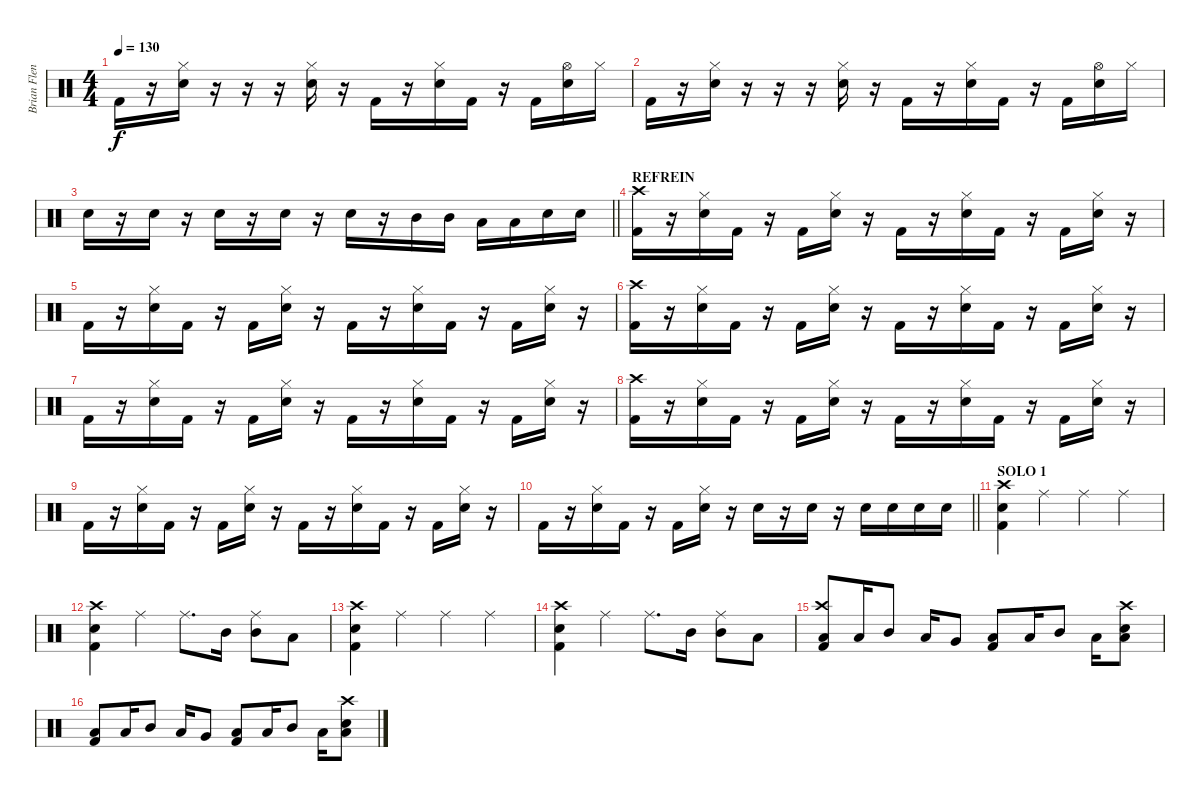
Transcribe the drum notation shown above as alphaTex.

\track ("Brian Flenniken" "Brian Flen") {instrument percussion}
\staff {score}
\articulation defaults
\ts (4 4)
\tempo 130
\clef neutral
\ks c "Kick (hit) 2".16{dy f}
r.16 ("Hi-Hat (closed)" "Snare (hit) 2").16 r.16 r.16 r.16 ("Hi-Hat (closed)" "Snare (hit) 2").16 r.16 "Kick (hit) 2".16 r.16 ("Hi-Hat (closed)" "Snare (hit) 2").16 "Kick (hit) 2".16 r.16 "Kick (hit) 2".16 ("Hi-Hat (open)" "Snare (hit) 2").16 "Hi-Hat (closed)".16 |
"Kick (hit) 2".16 r.16 ("Hi-Hat (closed)" "Snare (hit) 2").16 r.16 r.16 r.16 ("Hi-Hat (closed)" "Snare (hit) 2").16 r.16 "Kick (hit) 2".16 r.16 ("Hi-Hat (closed)" "Snare (hit) 2").16 "Kick (hit) 2".16 r.16 "Kick (hit) 2".16 ("Hi-Hat (open)" "Snare (hit) 2").16 "Hi-Hat (closed)".16 |
\barLineRight lightlight "Snare (hit) 2".16
r.16 "Snare (hit) 2".16 r.16 "Snare (hit) 2".16 r.16 "Snare (hit) 2".16 r.16 "Snare (hit) 2".16 r.16 "Mid Tom (hit)".16 "Mid Tom (hit)".16 "Low Tom (hit)".16 "Low Tom (hit)".16 "Snare (hit) 2".16 "Snare (hit) 2".16 |
\section ("" "REFREIN")
("Crash high (hit)" "Kick (hit) 2").16 r.16 ("Hi-Hat (closed)" "Snare (hit) 2").16 "Kick (hit) 2".16 r.16 "Kick (hit) 2".16 ("Hi-Hat (closed)" "Snare (hit) 2").16 r.16 "Kick (hit) 2".16 r.16 ("Hi-Hat (closed)" "Snare (hit) 2").16 "Kick (hit) 2".16 r.16 "Kick (hit) 2".16 ("Hi-Hat (closed)" "Snare (hit) 2").16 r.16 |
"Kick (hit) 2".16 r.16 ("Hi-Hat (closed)" "Snare (hit) 2").16 "Kick (hit) 2".16 r.16 "Kick (hit) 2".16 ("Hi-Hat (closed)" "Snare (hit) 2").16 r.16 "Kick (hit) 2".16 r.16 ("Hi-Hat (closed)" "Snare (hit) 2").16 "Kick (hit) 2".16 r.16 "Kick (hit) 2".16 ("Hi-Hat (closed)" "Snare (hit) 2").16 r.16 |
("Crash high (hit)" "Kick (hit) 2").16 r.16 ("Hi-Hat (closed)" "Snare (hit) 2").16 "Kick (hit) 2".16 r.16 "Kick (hit) 2".16 ("Hi-Hat (closed)" "Snare (hit) 2").16 r.16 "Kick (hit) 2".16 r.16 ("Hi-Hat (closed)" "Snare (hit) 2").16 "Kick (hit) 2".16 r.16 "Kick (hit) 2".16 ("Hi-Hat (closed)" "Snare (hit) 2").16 r.16 |
"Kick (hit) 2".16 r.16 ("Hi-Hat (closed)" "Snare (hit) 2").16 "Kick (hit) 2".16 r.16 "Kick (hit) 2".16 ("Hi-Hat (closed)" "Snare (hit) 2").16 r.16 "Kick (hit) 2".16 r.16 ("Hi-Hat (closed)" "Snare (hit) 2").16 "Kick (hit) 2".16 r.16 "Kick (hit) 2".16 ("Hi-Hat (closed)" "Snare (hit) 2").16 r.16 |
("Crash high (hit)" "Kick (hit) 2").16 r.16 ("Hi-Hat (closed)" "Snare (hit) 2").16 "Kick (hit) 2".16 r.16 "Kick (hit) 2".16 ("Hi-Hat (closed)" "Snare (hit) 2").16 r.16 "Kick (hit) 2".16 r.16 ("Hi-Hat (closed)" "Snare (hit) 2").16 "Kick (hit) 2".16 r.16 "Kick (hit) 2".16 ("Hi-Hat (closed)" "Snare (hit) 2").16 r.16 |
"Kick (hit) 2".16 r.16 ("Hi-Hat (closed)" "Snare (hit) 2").16 "Kick (hit) 2".16 r.16 "Kick (hit) 2".16 ("Hi-Hat (closed)" "Snare (hit) 2").16 r.16 "Kick (hit) 2".16 r.16 ("Hi-Hat (closed)" "Snare (hit) 2").16 "Kick (hit) 2".16 r.16 "Kick (hit) 2".16 ("Hi-Hat (closed)" "Snare (hit) 2").16 r.16 |
\barLineRight lightlight "Kick (hit) 2".16
r.16 ("Hi-Hat (closed)" "Snare (hit) 2").16 "Kick (hit) 2".16 r.16 "Kick (hit) 2".16 ("Hi-Hat (closed)" "Snare (hit) 2").16 r.16 "Snare (hit) 2".16 r.16 "Snare (hit) 2".16 r.16 "Snare (hit) 2".16 "Snare (hit) 2".16 "Snare (hit) 2".16 "Snare (hit) 2".16 |
\section ("" "SOLO 1")
("Crash high (hit)" "Snare (hit) 2" "Kick (hit) 2").4 "Ride (middle)".4 "Ride (middle)".4 "Ride (middle)".4 |
("Crash high (hit)" "Snare (hit) 2" "Kick (hit) 2").4 "Ride (middle)".4 "Ride (middle)".8{d} "Mid Tom (hit)".16 ("Ride (middle)" "Mid Tom (hit)").8 "Low Floor Tom (hit)".8 |
("Crash high (hit)" "Snare (hit) 2" "Kick (hit) 2").4 "Ride (middle)".4 "Ride (middle)".4 "Ride (middle)".4 |
("Crash high (hit)" "Snare (hit) 2" "Kick (hit) 2").4 "Ride (middle)".4 "Ride (middle)".8{d} "Mid Tom (hit)".16 ("Ride (middle)" "Mid Tom (hit)").8 "Low Floor Tom (hit)".8 |
("Crash high (hit)" "Low Floor Tom (hit)" "Kick (hit) 2").8 "Low Tom (hit)".16 "Mid Tom (hit)".8 "Low Tom (hit)".16 "Very Low Tom (hit)".8 ("Low Floor Tom (hit)" "Kick (hit) 2").8 "Low Tom (hit)".16 "Mid Tom (hit)".8 "Low Tom (hit)".16 ("Crash high (hit)" "Low Floor Tom (hit)" "Snare (hit) 2").8 |
("Low Floor Tom (hit)" "Kick (hit) 2").8 "Low Tom (hit)".16 "Mid Tom (hit)".8 "Low Tom (hit)".16 "Very Low Tom (hit)".8 ("Low Floor Tom (hit)" "Kick (hit) 2").8 "Low Tom (hit)".16 "Mid Tom (hit)".8 "Low Tom (hit)".16 ("Crash high (hit)" "Low Floor Tom (hit)" "Snare (hit) 2").8
